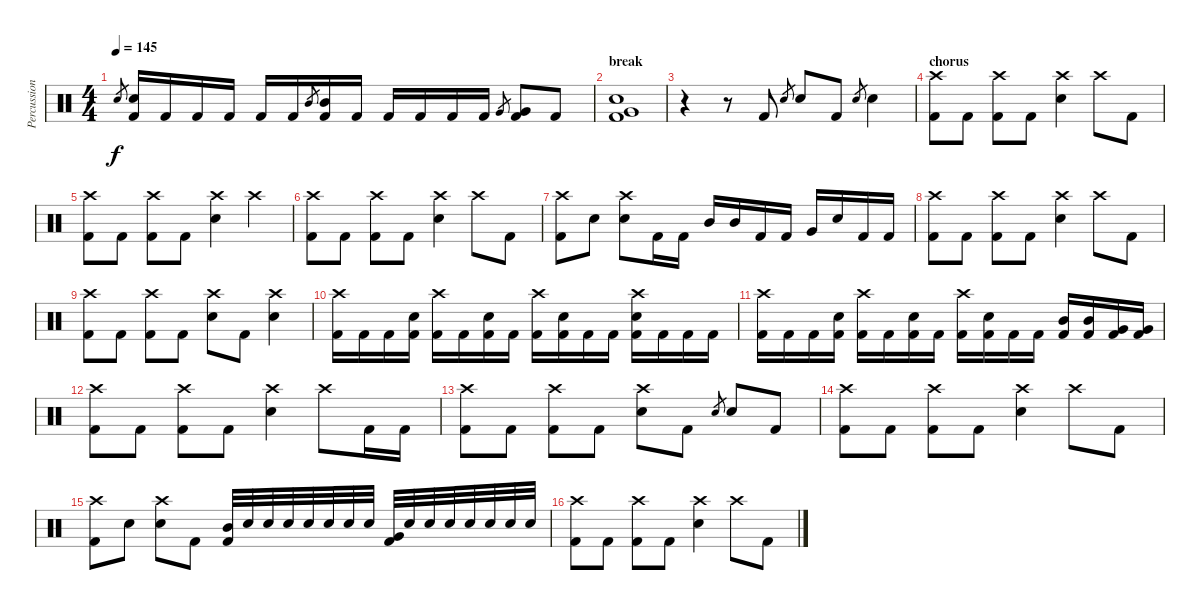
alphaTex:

\track ("Percussion" "Percussion") {instrument percussion}
\staff {score}
\articulation defaults
\ts (4 4)
\tempo 145
\clef neutral
\ks c "Snare (hit) 2".8{gr dy f}
("Snare (hit) 2" "Kick (hit) 2").16 "Kick (hit) 2".16 "Kick (hit) 2".16 "Kick (hit) 2".16 "Kick (hit) 2".16 "Kick (hit) 2".16 "Mid Tom (hit)".8{gr} ("Mid Tom (hit)" "Kick (hit) 2").16 "Kick (hit) 2".16 "Kick (hit) 2".16 "Kick (hit) 2".16 "Kick (hit) 2".16 "Kick (hit) 2".16 "Very Low Tom (hit)".8{gr} ("Very Low Tom (hit)" "Kick (hit) 2").8 "Kick (hit) 2".8 |
\section ("" "break")
("Snare (hit) 2" "Very Low Tom (hit)" "Kick (hit) 2").1 |
r.4 r.8 "Kick (hit) 2".8 "Snare (hit) 2".8{gr} "Snare (hit) 2".8 "Kick (hit) 2".8 "Snare (hit) 2".8{gr} "Snare (hit) 2".4 |
\section ("" "chorus")
("Crash high (hit)" "Kick (hit) 2").8 "Kick (hit) 2".8 ("Crash high (hit)" "Kick (hit) 2").8 "Kick (hit) 2".8 ("Crash high (hit)" "Snare (hit) 2").4 "Crash high (hit)".8 "Kick (hit) 2".8 |
("Crash high (hit)" "Kick (hit) 2").8 "Kick (hit) 2".8 ("Crash high (hit)" "Kick (hit) 2").8 "Kick (hit) 2".8 ("Crash high (hit)" "Snare (hit) 2").4 "Crash high (hit)".4 |
("Crash high (hit)" "Kick (hit) 2").8 "Kick (hit) 2".8 ("Crash high (hit)" "Kick (hit) 2").8 "Kick (hit) 2".8 ("Crash high (hit)" "Snare (hit) 2").4 "Crash high (hit)".8 "Kick (hit) 2".8 |
("Crash high (hit)" "Kick (hit) 2").8 "Snare (hit) 2".8 ("Crash high (hit)" "Snare (hit) 2").8 "Kick (hit) 2".16 "Kick (hit) 2".16 "Mid Tom (hit)".16 "Mid Tom (hit)".16 "Kick (hit) 2".16 "Kick (hit) 2".16 "Very Low Tom (hit)".16 "Snare (hit) 2".16 "Kick (hit) 2".16 "Kick (hit) 2".16 |
("Crash high (hit)" "Kick (hit) 2").8 "Kick (hit) 2".8 ("Crash high (hit)" "Kick (hit) 2").8 "Kick (hit) 2".8 ("Crash high (hit)" "Snare (hit) 2").4 "Crash high (hit)".8 "Kick (hit) 2".8 |
("Crash high (hit)" "Kick (hit) 2").8 "Kick (hit) 2".8 ("Crash high (hit)" "Kick (hit) 2").8 "Kick (hit) 2".8 ("Crash high (hit)" "Snare (hit) 2").8 "Kick (hit) 2".8 ("Crash high (hit)" "Snare (hit) 2").4 |
("Crash high (hit)" "Kick (hit) 2").16 "Kick (hit) 2".16 "Kick (hit) 2".16 ("Snare (hit) 2" "Kick (hit) 2").16 ("Crash high (hit)" "Kick (hit) 2").16 "Kick (hit) 2".16 ("Snare (hit) 2" "Kick (hit) 2").16 "Kick (hit) 2".16 ("Crash high (hit)" "Kick (hit) 2").16 ("Snare (hit) 2" "Kick (hit) 2").16 "Kick (hit) 2".16 "Kick (hit) 2".16 ("Crash high (hit)" "Snare (hit) 2" "Kick (hit) 2").16 "Kick (hit) 2".16 "Kick (hit) 2".16 "Kick (hit) 2".16 |
("Crash high (hit)" "Kick (hit) 2").16 "Kick (hit) 2".16 "Kick (hit) 2".16 ("Snare (hit) 2" "Kick (hit) 2").16 ("Crash high (hit)" "Kick (hit) 2").16 "Kick (hit) 2".16 ("Snare (hit) 2" "Kick (hit) 2").16 "Kick (hit) 2".16 ("Crash high (hit)" "Kick (hit) 2").16 ("Snare (hit) 2" "Kick (hit) 2").16 "Kick (hit) 2".16 "Kick (hit) 2".16 ("Mid Tom (hit)" "Kick (hit) 2").16 ("Mid Tom (hit)" "Kick (hit) 2").16 ("Very Low Tom (hit)" "Kick (hit) 2").16 ("Very Low Tom (hit)" "Kick (hit) 2").16 |
("Crash high (hit)" "Kick (hit) 2").8 "Kick (hit) 2".8 ("Crash high (hit)" "Kick (hit) 2").8 "Kick (hit) 2".8 ("Crash high (hit)" "Snare (hit) 2").4 "Crash high (hit)".8 "Kick (hit) 2".16 "Kick (hit) 2".16 |
("Crash high (hit)" "Kick (hit) 2").8 "Kick (hit) 2".8 ("Crash high (hit)" "Kick (hit) 2").8 "Kick (hit) 2".8 ("Crash high (hit)" "Snare (hit) 2").8 "Kick (hit) 2".8 "Snare (hit) 2".8{gr} "Snare (hit) 2".8 "Kick (hit) 2".8 |
("Crash high (hit)" "Kick (hit) 2").8 "Kick (hit) 2".8 ("Crash high (hit)" "Kick (hit) 2").8 "Kick (hit) 2".8 ("Crash high (hit)" "Snare (hit) 2").4 "Crash high (hit)".8 "Kick (hit) 2".8 |
("Crash high (hit)" "Kick (hit) 2").8 "Snare (hit) 2".8 ("Crash high (hit)" "Snare (hit) 2").8 "Kick (hit) 2".8 ("Mid Tom (hit)" "Kick (hit) 2").32 "Snare (hit) 2".32 "Snare (hit) 2".32 "Snare (hit) 2".32 "Snare (hit) 2".32 "Snare (hit) 2".32 "Snare (hit) 2".32 "Snare (hit) 2".32 ("Very Low Tom (hit)" "Kick (hit) 2").32 "Snare (hit) 2".32 "Snare (hit) 2".32 "Snare (hit) 2".32 "Snare (hit) 2".32 "Snare (hit) 2".32 "Snare (hit) 2".32 "Snare (hit) 2".32 |
("Crash high (hit)" "Kick (hit) 2").8 "Kick (hit) 2".8 ("Crash high (hit)" "Kick (hit) 2").8 "Kick (hit) 2".8 ("Crash high (hit)" "Snare (hit) 2").4 "Crash high (hit)".8 "Kick (hit) 2".8
